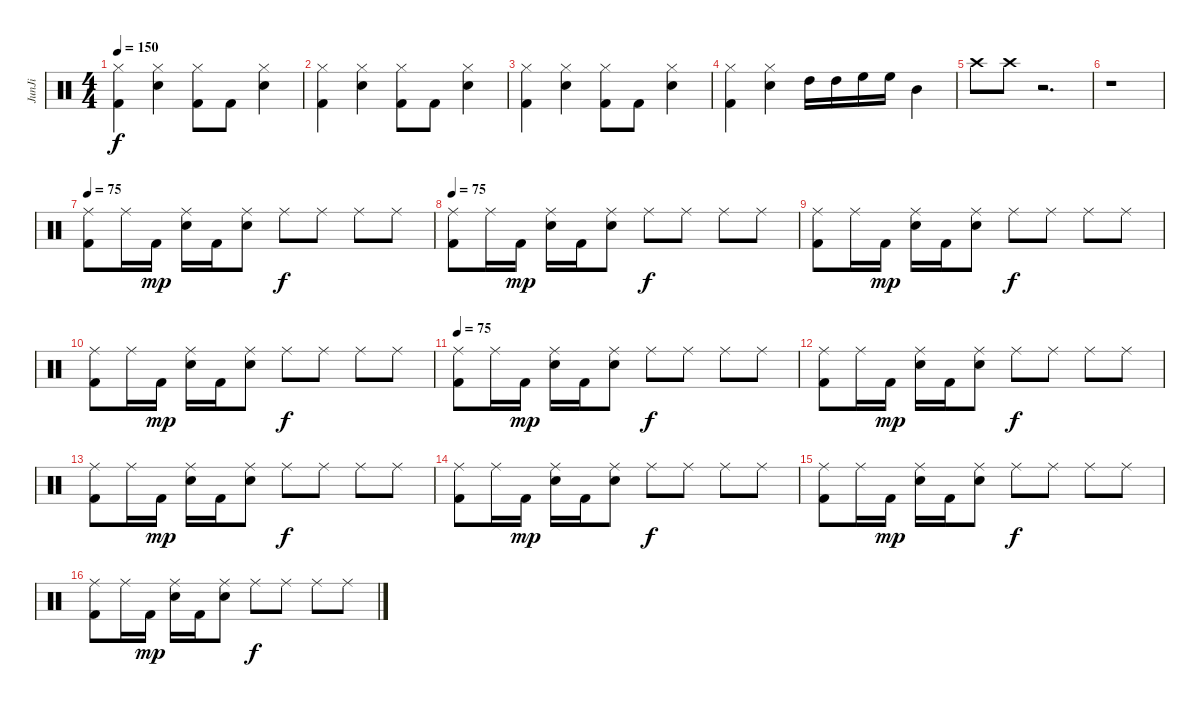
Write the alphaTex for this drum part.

\track ("JunJi" "JunJi") {instrument percussion}
\staff {score}
\articulation defaults
\ts (4 4)
\tempo 150
\clef neutral
\ks c
("Hi-Hat (closed)" "Kick (hit) 2").4{dy f} ("Electric Snare (hit)" "Hi-Hat (closed)").4 ("Hi-Hat (closed)" "Kick (hit) 2").8 "Kick (hit) 2".8 ("Electric Snare (hit)" "Hi-Hat (closed)").4 |
("Hi-Hat (closed)" "Kick (hit) 2").4 ("Electric Snare (hit)" "Hi-Hat (closed)").4 ("Hi-Hat (closed)" "Kick (hit) 2").8 "Kick (hit) 2".8 ("Electric Snare (hit)" "Hi-Hat (closed)").4 |
("Hi-Hat (closed)" "Kick (hit) 2").4 ("Electric Snare (hit)" "Hi-Hat (closed)").4 ("Hi-Hat (closed)" "Kick (hit) 2").8 "Kick (hit) 2".8 ("Electric Snare (hit)" "Hi-Hat (closed)").4 |
("Hi-Hat (closed)" "Kick (hit) 2").4 ("Electric Snare (hit)" "Hi-Hat (closed)").4 "High Tom (hit)".16 "High Tom (hit)".16 "High Floor Tom (hit)".16 "High Floor Tom (hit)".16 "Mid Tom (hit)".4 |
"Crash high (hit)".8 "Crash high (hit)".8 r.2{d} |
r.1 |
\tempo 75
("Ride (middle)" "Kick (hit) 2").8{volume 10} "Ride (middle)".16 "Kick (hit) 2".16{dy mp} ("Ride (middle)" "Electric Snare (hit)").16 "Kick (hit) 2".16 ("Ride (middle)" "Electric Snare (hit)").8 "Ride (middle)".8{dy f} "Ride (middle)".8 "Ride (middle)".8 "Ride (middle)".8 |
\tempo 75
("Ride (middle)" "Kick (hit) 2").8 "Ride (middle)".16 "Kick (hit) 2".16{dy mp} ("Ride (middle)" "Electric Snare (hit)").16 "Kick (hit) 2".16 ("Ride (middle)" "Electric Snare (hit)").8 "Ride (middle)".8{dy f} "Ride (middle)".8 "Ride (middle)".8 "Ride (middle)".8 |
("Ride (middle)" "Kick (hit) 2").8 "Ride (middle)".16 "Kick (hit) 2".16{dy mp} ("Ride (middle)" "Electric Snare (hit)").16 "Kick (hit) 2".16 ("Ride (middle)" "Electric Snare (hit)").8 "Ride (middle)".8{dy f} "Ride (middle)".8 "Ride (middle)".8 "Ride (middle)".8 |
("Ride (middle)" "Kick (hit) 2").8 "Ride (middle)".16 "Kick (hit) 2".16{dy mp} ("Ride (middle)" "Electric Snare (hit)").16 "Kick (hit) 2".16 ("Ride (middle)" "Electric Snare (hit)").8 "Ride (middle)".8{dy f} "Ride (middle)".8 "Ride (middle)".8 "Ride (middle)".8 |
\tempo 75
("Ride (middle)" "Kick (hit) 2").8 "Ride (middle)".16 "Kick (hit) 2".16{dy mp} ("Ride (middle)" "Electric Snare (hit)").16 "Kick (hit) 2".16 ("Ride (middle)" "Electric Snare (hit)").8 "Ride (middle)".8{dy f} "Ride (middle)".8 "Ride (middle)".8 "Ride (middle)".8 |
("Ride (middle)" "Kick (hit) 2").8 "Ride (middle)".16 "Kick (hit) 2".16{dy mp} ("Ride (middle)" "Electric Snare (hit)").16 "Kick (hit) 2".16 ("Ride (middle)" "Electric Snare (hit)").8 "Ride (middle)".8{dy f} "Ride (middle)".8 "Ride (middle)".8 "Ride (middle)".8 |
("Ride (middle)" "Kick (hit) 2").8 "Ride (middle)".16 "Kick (hit) 2".16{dy mp} ("Ride (middle)" "Electric Snare (hit)").16 "Kick (hit) 2".16 ("Ride (middle)" "Electric Snare (hit)").8 "Ride (middle)".8{dy f} "Ride (middle)".8 "Ride (middle)".8 "Ride (middle)".8 |
("Ride (middle)" "Kick (hit) 2").8 "Ride (middle)".16 "Kick (hit) 2".16{dy mp} ("Ride (middle)" "Electric Snare (hit)").16 "Kick (hit) 2".16 ("Ride (middle)" "Electric Snare (hit)").8 "Ride (middle)".8{dy f} "Ride (middle)".8 "Ride (middle)".8 "Ride (middle)".8 |
("Ride (middle)" "Kick (hit) 2").8 "Ride (middle)".16 "Kick (hit) 2".16{dy mp} ("Ride (middle)" "Electric Snare (hit)").16 "Kick (hit) 2".16 ("Ride (middle)" "Electric Snare (hit)").8 "Ride (middle)".8{dy f} "Ride (middle)".8 "Ride (middle)".8 "Ride (middle)".8 |
("Ride (middle)" "Kick (hit) 2").8 "Ride (middle)".16 "Kick (hit) 2".16{dy mp} ("Ride (middle)" "Electric Snare (hit)").16 "Kick (hit) 2".16 ("Ride (middle)" "Electric Snare (hit)").8 "Ride (middle)".8{dy f} "Ride (middle)".8 "Ride (middle)".8 "Ride (middle)".8
